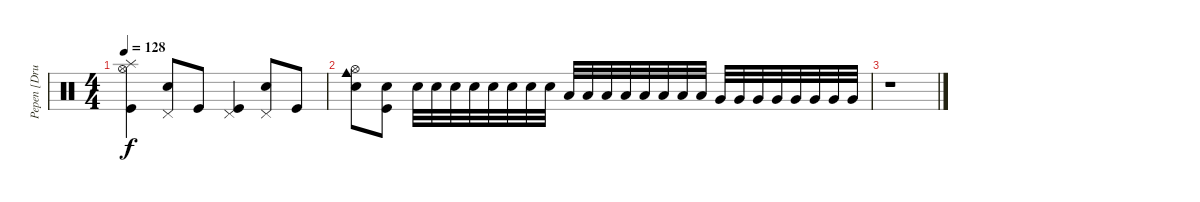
\track ("Pepen [Drum]" "Pepen [Dru") {instrument percussion}
\staff {score}
\articulation defaults
\ts (4 4)
\tempo 128
\clef neutral
\ks c
("Hi-Hat (open)" "Kick (hit)" "Splash (hit)").4{dy f} ("Pedal Hi-Hat (hit)" "Electric Snare (hit)").8 "Kick (hit)".8 ("Pedal Hi-Hat (hit)" "Kick (hit)").4 ("Pedal Hi-Hat (hit)" "Electric Snare (hit)").8 "Kick (hit)".8 |
("Hi-Hat (open)" "Cowbell medium (hit)" "Electric Snare (hit)").8 ("Kick (hit)" "Snare (hit) 2").8 "Electric Snare (hit)".32 "Electric Snare (hit)".32 "Electric Snare (hit)".32 "Electric Snare (hit)".32 "Electric Snare (hit)".32 "Electric Snare (hit)".32 "Electric Snare (hit)".32 "Electric Snare (hit)".32 "Low Floor Tom (hit)".32 "Low Floor Tom (hit)".32 "Low Floor Tom (hit)".32 "Low Floor Tom (hit)".32 "Low Floor Tom (hit)".32 "Low Floor Tom (hit)".32 "Low Floor Tom (hit)".32 "Low Floor Tom (hit)".32 "Very Low Tom (hit)".32 "Very Low Tom (hit)".32 "Very Low Tom (hit)".32 "Very Low Tom (hit)".32 "Very Low Tom (hit)".32 "Very Low Tom (hit)".32 "Very Low Tom (hit)".32 "Very Low Tom (hit)".32 |
r.1
